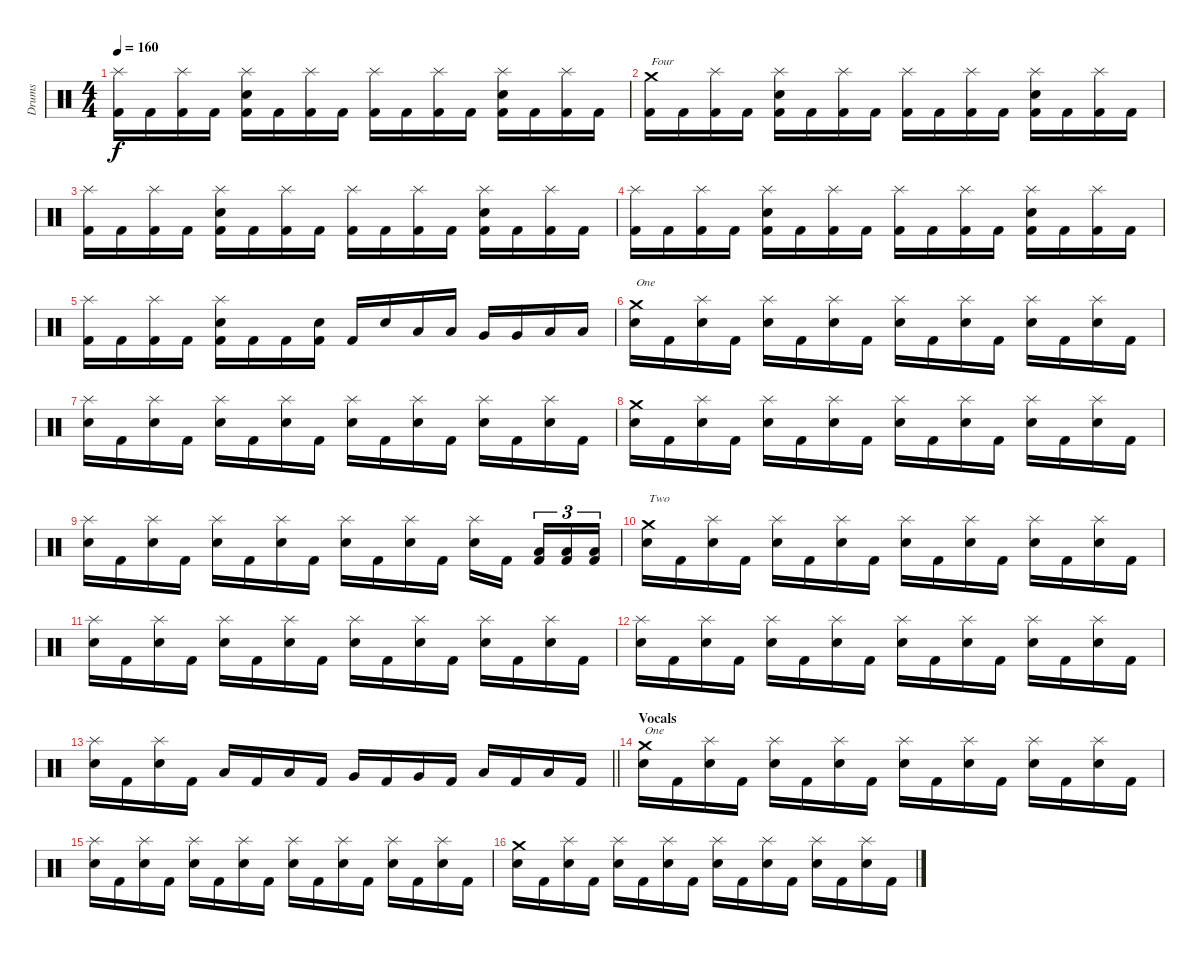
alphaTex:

\track ("Drums" "Drums") {instrument percussion}
\staff {score}
\articulation defaults
\ts (4 4)
\tempo 160
\clef neutral
\ks c
("Splash (hit)" "Kick (hit) 2").16{dy f} "Kick (hit) 2".16 ("Splash (hit)" "Kick (hit) 2").16 "Kick (hit) 2".16 ("Splash (hit)" "Snare (hit) 2" "Kick (hit) 2").16 "Kick (hit) 2".16 ("Splash (hit)" "Kick (hit) 2").16 "Kick (hit) 2".16 ("Splash (hit)" "Kick (hit) 2").16 "Kick (hit) 2".16 ("Splash (hit)" "Kick (hit) 2").16 "Kick (hit) 2".16 ("Splash (hit)" "Snare (hit) 2" "Kick (hit) 2").16 "Kick (hit) 2".16 ("Splash (hit)" "Kick (hit) 2").16 "Kick (hit) 2".16 |
("Crash medium (hit)" "Kick (hit) 2").16{txt "Four"} "Kick (hit) 2".16 ("Splash (hit)" "Kick (hit) 2").16 "Kick (hit) 2".16 ("Splash (hit)" "Snare (hit) 2" "Kick (hit) 2").16 "Kick (hit) 2".16 ("Splash (hit)" "Kick (hit) 2").16 "Kick (hit) 2".16 ("Splash (hit)" "Kick (hit) 2").16 "Kick (hit) 2".16 ("Splash (hit)" "Kick (hit) 2").16 "Kick (hit) 2".16 ("Splash (hit)" "Snare (hit) 2" "Kick (hit) 2").16 "Kick (hit) 2".16 ("Splash (hit)" "Kick (hit) 2").16 "Kick (hit) 2".16 |
("Splash (hit)" "Kick (hit) 2").16 "Kick (hit) 2".16 ("Splash (hit)" "Kick (hit) 2").16 "Kick (hit) 2".16 ("Splash (hit)" "Snare (hit) 2" "Kick (hit) 2").16 "Kick (hit) 2".16 ("Splash (hit)" "Kick (hit) 2").16 "Kick (hit) 2".16 ("Splash (hit)" "Kick (hit) 2").16 "Kick (hit) 2".16 ("Splash (hit)" "Kick (hit) 2").16 "Kick (hit) 2".16 ("Splash (hit)" "Snare (hit) 2" "Kick (hit) 2").16 "Kick (hit) 2".16 ("Splash (hit)" "Kick (hit) 2").16 "Kick (hit) 2".16 |
("Splash (hit)" "Kick (hit) 2").16 "Kick (hit) 2".16 ("Splash (hit)" "Kick (hit) 2").16 "Kick (hit) 2".16 ("Splash (hit)" "Snare (hit) 2" "Kick (hit) 2").16 "Kick (hit) 2".16 ("Splash (hit)" "Kick (hit) 2").16 "Kick (hit) 2".16 ("Splash (hit)" "Kick (hit) 2").16 "Kick (hit) 2".16 ("Splash (hit)" "Kick (hit) 2").16 "Kick (hit) 2".16 ("Splash (hit)" "Snare (hit) 2" "Kick (hit) 2").16 "Kick (hit) 2".16 ("Splash (hit)" "Kick (hit) 2").16 "Kick (hit) 2".16 |
("Splash (hit)" "Kick (hit) 2").16 "Kick (hit) 2".16 ("Splash (hit)" "Kick (hit) 2").16 "Kick (hit) 2".16 ("Splash (hit)" "Snare (hit) 2" "Kick (hit) 2").16 "Kick (hit) 2".16 "Kick (hit) 2".16 ("Snare (hit) 2" "Kick (hit) 2").16 "Kick (hit) 2".16 "Snare (hit) 2".16 "Low Tom (hit)".16 "Low Tom (hit)".16 "Very Low Tom (hit)".16 "Very Low Tom (hit)".16 "Low Floor Tom (hit)".16 "Low Floor Tom (hit)".16 |
("Crash medium (hit)" "Snare (hit) 2").16{txt "One"} "Kick (hit) 2".16 ("Splash (hit)" "Snare (hit) 2").16 "Kick (hit) 2".16 ("Splash (hit)" "Snare (hit) 2").16 "Kick (hit) 2".16 ("Splash (hit)" "Snare (hit) 2").16 "Kick (hit) 2".16 ("Splash (hit)" "Snare (hit) 2").16 "Kick (hit) 2".16 ("Splash (hit)" "Snare (hit) 2").16 "Kick (hit) 2".16 ("Splash (hit)" "Snare (hit) 2").16 "Kick (hit) 2".16 ("Splash (hit)" "Snare (hit) 2").16 "Kick (hit) 2".16 |
("Splash (hit)" "Snare (hit) 2").16 "Kick (hit) 2".16 ("Splash (hit)" "Snare (hit) 2").16 "Kick (hit) 2".16 ("Splash (hit)" "Snare (hit) 2").16 "Kick (hit) 2".16 ("Splash (hit)" "Snare (hit) 2").16 "Kick (hit) 2".16 ("Splash (hit)" "Snare (hit) 2").16 "Kick (hit) 2".16 ("Splash (hit)" "Snare (hit) 2").16 "Kick (hit) 2".16 ("Splash (hit)" "Snare (hit) 2").16 "Kick (hit) 2".16 ("Splash (hit)" "Snare (hit) 2").16 "Kick (hit) 2".16 |
("Crash medium (hit)" "Snare (hit) 2").16 "Kick (hit) 2".16 ("Splash (hit)" "Snare (hit) 2").16 "Kick (hit) 2".16 ("Splash (hit)" "Snare (hit) 2").16 "Kick (hit) 2".16 ("Splash (hit)" "Snare (hit) 2").16 "Kick (hit) 2".16 ("Splash (hit)" "Snare (hit) 2").16 "Kick (hit) 2".16 ("Splash (hit)" "Snare (hit) 2").16 "Kick (hit) 2".16 ("Splash (hit)" "Snare (hit) 2").16 "Kick (hit) 2".16 ("Splash (hit)" "Snare (hit) 2").16 "Kick (hit) 2".16 |
("Splash (hit)" "Snare (hit) 2").16 "Kick (hit) 2".16 ("Splash (hit)" "Snare (hit) 2").16 "Kick (hit) 2".16 ("Splash (hit)" "Snare (hit) 2").16 "Kick (hit) 2".16 ("Splash (hit)" "Snare (hit) 2").16 "Kick (hit) 2".16 ("Splash (hit)" "Snare (hit) 2").16 "Kick (hit) 2".16 ("Splash (hit)" "Snare (hit) 2").16 "Kick (hit) 2".16 ("Splash (hit)" "Snare (hit) 2").16 "Kick (hit) 2".16{beam splitsecondary} ("Low Tom (hit)" "Kick (hit) 2").16{tu (3 2)} ("Low Tom (hit)" "Kick (hit) 2").16{tu (3 2)} ("Low Tom (hit)" "Kick (hit) 2").16{tu (3 2)} |
("Crash medium (hit)" "Snare (hit) 2").16{txt "Two"} "Kick (hit) 2".16 ("Splash (hit)" "Snare (hit) 2").16 "Kick (hit) 2".16 ("Splash (hit)" "Snare (hit) 2").16 "Kick (hit) 2".16 ("Splash (hit)" "Snare (hit) 2").16 "Kick (hit) 2".16 ("Splash (hit)" "Snare (hit) 2").16 "Kick (hit) 2".16 ("Splash (hit)" "Snare (hit) 2").16 "Kick (hit) 2".16 ("Splash (hit)" "Snare (hit) 2").16 "Kick (hit) 2".16 ("Splash (hit)" "Snare (hit) 2").16 "Kick (hit) 2".16 |
("Splash (hit)" "Snare (hit) 2").16 "Kick (hit) 2".16 ("Splash (hit)" "Snare (hit) 2").16 "Kick (hit) 2".16 ("Splash (hit)" "Snare (hit) 2").16 "Kick (hit) 2".16 ("Splash (hit)" "Snare (hit) 2").16 "Kick (hit) 2".16 ("Splash (hit)" "Snare (hit) 2").16 "Kick (hit) 2".16 ("Splash (hit)" "Snare (hit) 2").16 "Kick (hit) 2".16 ("Splash (hit)" "Snare (hit) 2").16 "Kick (hit) 2".16 ("Splash (hit)" "Snare (hit) 2").16 "Kick (hit) 2".16 |
("Splash (hit)" "Snare (hit) 2").16 "Kick (hit) 2".16 ("Splash (hit)" "Snare (hit) 2").16 "Kick (hit) 2".16 ("Splash (hit)" "Snare (hit) 2").16 "Kick (hit) 2".16 ("Splash (hit)" "Snare (hit) 2").16 "Kick (hit) 2".16 ("Splash (hit)" "Snare (hit) 2").16 "Kick (hit) 2".16 ("Splash (hit)" "Snare (hit) 2").16 "Kick (hit) 2".16 ("Splash (hit)" "Snare (hit) 2").16 "Kick (hit) 2".16 ("Splash (hit)" "Snare (hit) 2").16 "Kick (hit) 2".16 |
\barLineRight lightlight
("Splash (hit)" "Snare (hit) 2").16 "Kick (hit) 2".16 ("Splash (hit)" "Snare (hit) 2").16 "Kick (hit) 2".16 "Low Tom (hit)".16 "Kick (hit) 2".16 "Low Tom (hit)".16 "Kick (hit) 2".16 "Very Low Tom (hit)".16 "Kick (hit) 2".16 "Very Low Tom (hit)".16 "Kick (hit) 2".16 "Low Floor Tom (hit)".16 "Kick (hit) 2".16 "Low Floor Tom (hit)".16 "Kick (hit) 2".16 |
\section ("" "Vocals")
("Crash medium (hit)" "Snare (hit) 2").16{txt "One"} "Kick (hit) 2".16 ("Splash (hit)" "Snare (hit) 2").16 "Kick (hit) 2".16 ("Splash (hit)" "Snare (hit) 2").16 "Kick (hit) 2".16 ("Splash (hit)" "Snare (hit) 2").16 "Kick (hit) 2".16 ("Splash (hit)" "Snare (hit) 2").16 "Kick (hit) 2".16 ("Splash (hit)" "Snare (hit) 2").16 "Kick (hit) 2".16 ("Splash (hit)" "Snare (hit) 2").16 "Kick (hit) 2".16 ("Splash (hit)" "Snare (hit) 2").16 "Kick (hit) 2".16 |
("Splash (hit)" "Snare (hit) 2").16 "Kick (hit) 2".16 ("Splash (hit)" "Snare (hit) 2").16 "Kick (hit) 2".16 ("Splash (hit)" "Snare (hit) 2").16 "Kick (hit) 2".16 ("Splash (hit)" "Snare (hit) 2").16 "Kick (hit) 2".16 ("Splash (hit)" "Snare (hit) 2").16 "Kick (hit) 2".16 ("Splash (hit)" "Snare (hit) 2").16 "Kick (hit) 2".16 ("Splash (hit)" "Snare (hit) 2").16 "Kick (hit) 2".16 ("Splash (hit)" "Snare (hit) 2").16 "Kick (hit) 2".16 |
("Crash medium (hit)" "Snare (hit) 2").16 "Kick (hit) 2".16 ("Splash (hit)" "Snare (hit) 2").16 "Kick (hit) 2".16 ("Splash (hit)" "Snare (hit) 2").16 "Kick (hit) 2".16 ("Splash (hit)" "Snare (hit) 2").16 "Kick (hit) 2".16 ("Splash (hit)" "Snare (hit) 2").16 "Kick (hit) 2".16 ("Splash (hit)" "Snare (hit) 2").16 "Kick (hit) 2".16 ("Splash (hit)" "Snare (hit) 2").16 "Kick (hit) 2".16 ("Splash (hit)" "Snare (hit) 2").16 "Kick (hit) 2".16
